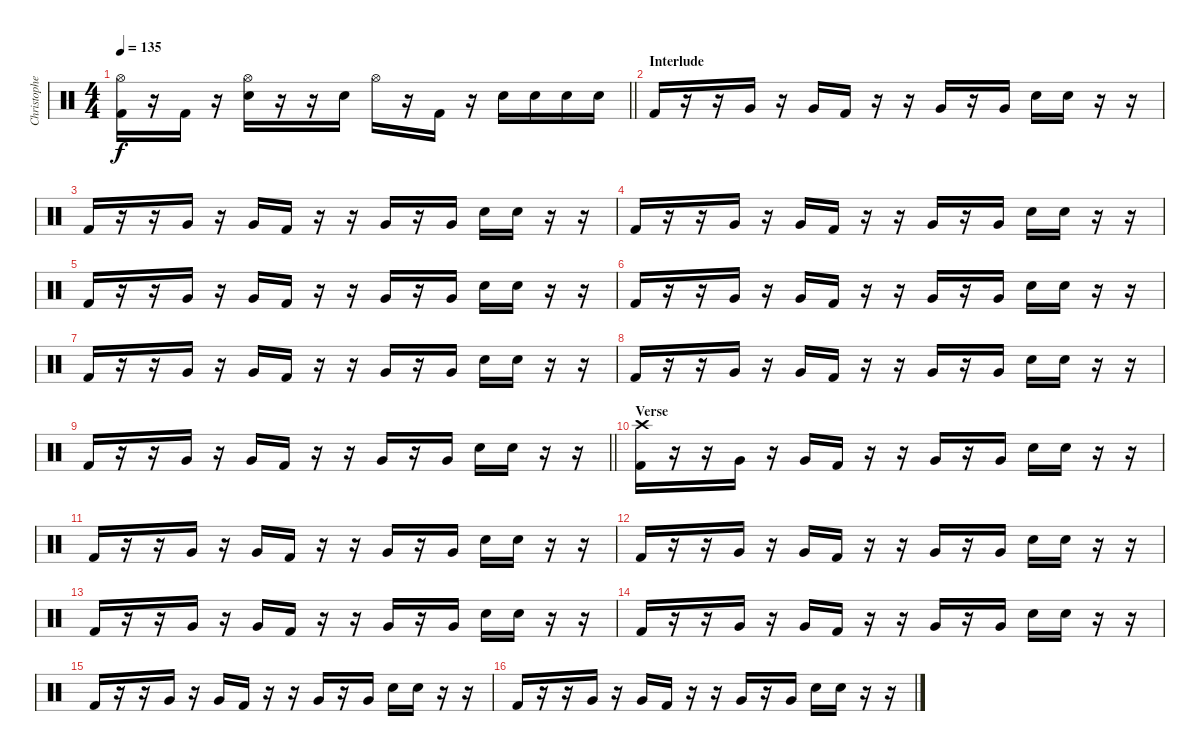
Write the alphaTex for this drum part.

\track ("Christopher - Drums" "Christophe") {instrument percussion}
\staff {score}
\articulation defaults
\ts (4 4)
\tempo 135
\clef neutral
\barLineRight lightlight
\ks c
("Hi-Hat (open)" "Kick (hit) 2").16{dy f} r.16 "Kick (hit) 2".16 r.16 ("Hi-Hat (open)" "Electric Snare (hit)").16 r.16 r.16 "Electric Snare (hit)".16 "Hi-Hat (open)".16 r.16 "Kick (hit) 2".16 r.16 "Electric Snare (hit)".16 "Electric Snare (hit)".16 "Electric Snare (hit)".16 "Electric Snare (hit)".16 |
\section ("" "Interlude")
"Kick (hit) 2".16 r.16 r.16 "Very Low Tom (hit)".16 r.16 "Very Low Tom (hit)".16 "Kick (hit) 2".16 r.16 r.16 "Very Low Tom (hit)".16 r.16 "Very Low Tom (hit)".16 "Electric Snare (hit)".16 "Electric Snare (hit)".16 r.16 r.16 |
"Kick (hit) 2".16 r.16 r.16 "Very Low Tom (hit)".16 r.16 "Very Low Tom (hit)".16 "Kick (hit) 2".16 r.16 r.16 "Very Low Tom (hit)".16 r.16 "Very Low Tom (hit)".16 "Electric Snare (hit)".16 "Electric Snare (hit)".16 r.16 r.16 |
"Kick (hit) 2".16 r.16 r.16 "Very Low Tom (hit)".16 r.16 "Very Low Tom (hit)".16 "Kick (hit) 2".16 r.16 r.16 "Very Low Tom (hit)".16 r.16 "Very Low Tom (hit)".16 "Electric Snare (hit)".16 "Electric Snare (hit)".16 r.16 r.16 |
"Kick (hit) 2".16 r.16 r.16 "Very Low Tom (hit)".16 r.16 "Very Low Tom (hit)".16 "Kick (hit) 2".16 r.16 r.16 "Very Low Tom (hit)".16 r.16 "Very Low Tom (hit)".16 "Electric Snare (hit)".16 "Electric Snare (hit)".16 r.16 r.16 |
"Kick (hit) 2".16 r.16 r.16 "Very Low Tom (hit)".16 r.16 "Very Low Tom (hit)".16 "Kick (hit) 2".16 r.16 r.16 "Very Low Tom (hit)".16 r.16 "Very Low Tom (hit)".16 "Electric Snare (hit)".16 "Electric Snare (hit)".16 r.16 r.16 |
"Kick (hit) 2".16 r.16 r.16 "Very Low Tom (hit)".16 r.16 "Very Low Tom (hit)".16 "Kick (hit) 2".16 r.16 r.16 "Very Low Tom (hit)".16 r.16 "Very Low Tom (hit)".16 "Electric Snare (hit)".16 "Electric Snare (hit)".16 r.16 r.16 |
"Kick (hit) 2".16 r.16 r.16 "Very Low Tom (hit)".16 r.16 "Very Low Tom (hit)".16 "Kick (hit) 2".16 r.16 r.16 "Very Low Tom (hit)".16 r.16 "Very Low Tom (hit)".16 "Electric Snare (hit)".16 "Electric Snare (hit)".16 r.16 r.16 |
\barLineRight lightlight "Kick (hit) 2".16
r.16 r.16 "Very Low Tom (hit)".16 r.16 "Very Low Tom (hit)".16 "Kick (hit) 2".16 r.16 r.16 "Very Low Tom (hit)".16 r.16 "Very Low Tom (hit)".16 "Electric Snare (hit)".16 "Electric Snare (hit)".16 r.16 r.16 |
\section ("" "Verse")
("Crash high (hit)" "Kick (hit) 2").16 r.16 r.16 "Very Low Tom (hit)".16 r.16 "Very Low Tom (hit)".16 "Kick (hit) 2".16 r.16 r.16 "Very Low Tom (hit)".16 r.16 "Very Low Tom (hit)".16 "Electric Snare (hit)".16 "Electric Snare (hit)".16 r.16 r.16 |
"Kick (hit) 2".16 r.16 r.16 "Very Low Tom (hit)".16 r.16 "Very Low Tom (hit)".16 "Kick (hit) 2".16 r.16 r.16 "Very Low Tom (hit)".16 r.16 "Very Low Tom (hit)".16 "Electric Snare (hit)".16 "Electric Snare (hit)".16 r.16 r.16 |
"Kick (hit) 2".16 r.16 r.16 "Very Low Tom (hit)".16 r.16 "Very Low Tom (hit)".16 "Kick (hit) 2".16 r.16 r.16 "Very Low Tom (hit)".16 r.16 "Very Low Tom (hit)".16 "Electric Snare (hit)".16 "Electric Snare (hit)".16 r.16 r.16 |
"Kick (hit) 2".16 r.16 r.16 "Very Low Tom (hit)".16 r.16 "Very Low Tom (hit)".16 "Kick (hit) 2".16 r.16 r.16 "Very Low Tom (hit)".16 r.16 "Very Low Tom (hit)".16 "Electric Snare (hit)".16 "Electric Snare (hit)".16 r.16 r.16 |
"Kick (hit) 2".16 r.16 r.16 "Very Low Tom (hit)".16 r.16 "Very Low Tom (hit)".16 "Kick (hit) 2".16 r.16 r.16 "Very Low Tom (hit)".16 r.16 "Very Low Tom (hit)".16 "Electric Snare (hit)".16 "Electric Snare (hit)".16 r.16 r.16 |
"Kick (hit) 2".16 r.16 r.16 "Very Low Tom (hit)".16 r.16 "Very Low Tom (hit)".16 "Kick (hit) 2".16 r.16 r.16 "Very Low Tom (hit)".16 r.16 "Very Low Tom (hit)".16 "Electric Snare (hit)".16 "Electric Snare (hit)".16 r.16 r.16 |
"Kick (hit) 2".16 r.16 r.16 "Very Low Tom (hit)".16 r.16 "Very Low Tom (hit)".16 "Kick (hit) 2".16 r.16 r.16 "Very Low Tom (hit)".16 r.16 "Very Low Tom (hit)".16 "Electric Snare (hit)".16 "Electric Snare (hit)".16 r.16 r.16
